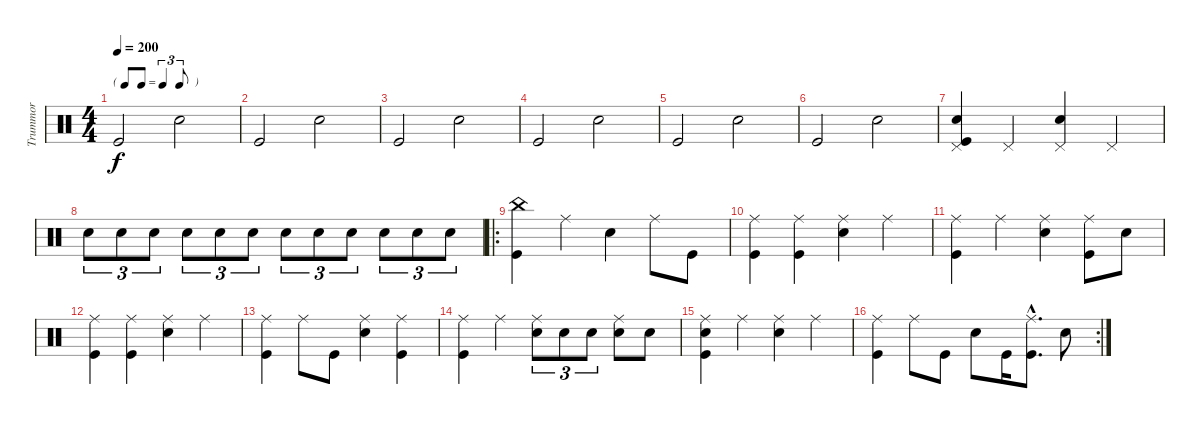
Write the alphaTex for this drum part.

\track ("Trummor" "Trummor") {instrument percussion}
\staff {score}
\articulation defaults
\ts (4 4)
\tf triplet8th
\tempo 200
\clef neutral
\ks c "Kick (hit)".2{dy f} "Hand Clap (hit)".2
|
"Kick (hit)".2 "Hand Clap (hit)".2 |
"Kick (hit)".2 "Hand Clap (hit)".2 |
"Kick (hit)".2 "Hand Clap (hit)".2 |
"Kick (hit)".2 "Hand Clap (hit)".2 |
"Kick (hit)".2 "Hand Clap (hit)".2 |
("Pedal Hi-Hat (hit)" "Snare (hit) 2" "Kick (hit)").4 "Pedal Hi-Hat (hit)".4 ("Pedal Hi-Hat (hit)" "Snare (hit) 2").4 "Pedal Hi-Hat (hit)".4 |
"Snare (hit) 2".8{tu (3 2)} "Snare (hit) 2".8{tu (3 2)} "Snare (hit) 2".8{tu (3 2)} "Snare (hit) 2".8{tu (3 2)} "Snare (hit) 2".8{tu (3 2)} "Snare (hit) 2".8{tu (3 2)} "Snare (hit) 2".8{tu (3 2)} "Snare (hit) 2".8{tu (3 2)} "Snare (hit) 2".8{tu (3 2)} "Snare (hit) 2".8{tu (3 2)} "Snare (hit) 2".8{tu (3 2)} "Snare (hit) 2".8{tu (3 2)} |
\ro
("China (hit)" "Kick (hit)").4 "Ride (middle)".4 "Snare (hit) 2".4 "Ride (middle)".8 "Kick (hit)".8 |
("Ride (middle)" "Kick (hit)").4 ("Ride (middle)" "Kick (hit)").4 ("Ride (middle)" "Snare (hit) 2").4 "Ride (middle)".4 |
("Ride (middle)" "Kick (hit)").4 "Ride (middle)".4 ("Ride (middle)" "Snare (hit) 2").4 ("Ride (middle)" "Kick (hit)").8 "Snare (hit) 2".8 |
("Ride (middle)" "Kick (hit)").4 ("Ride (middle)" "Kick (hit)").4 ("Ride (middle)" "Snare (hit) 2").4 "Ride (middle)".4 |
("Ride (middle)" "Kick (hit)").4 "Ride (middle)".8 "Kick (hit)".8 ("Ride (middle)" "Snare (hit) 2").4 ("Ride (middle)" "Kick (hit)").4 |
("Ride (middle)" "Kick (hit)").4 "Ride (middle)".4 ("Ride (middle)" "Snare (hit) 2").8{tu (3 2)} "Snare (hit) 2".8{tu (3 2)} "Snare (hit) 2".8{tu (3 2)} ("Ride (middle)" "Snare (hit) 2").8 "Snare (hit) 2".8 |
("Ride (middle)" "Snare (hit) 2" "Kick (hit)").4 "Ride (middle)".4 ("Ride (middle)" "Snare (hit) 2").4 "Ride (middle)".4 |
\rc 2
("Ride (middle)" "Kick (hit)").4 "Ride (middle)".8 "Kick (hit)".8 "Snare (hit) 2".8 "Kick (hit)".16 ("Ride (middle)"{hac} "Kick (hit)"{hac}).8{d} "Snare (hit) 2".8
